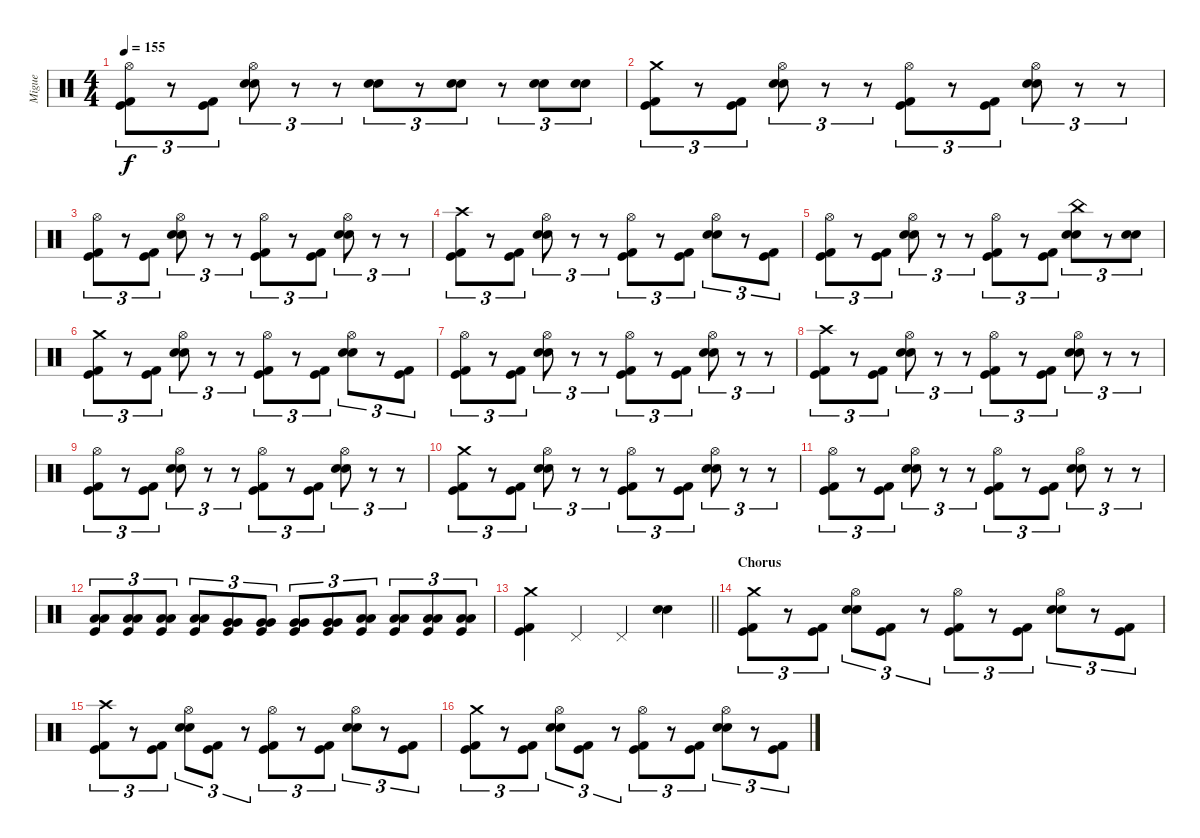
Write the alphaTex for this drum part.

\track ("Migue" "Migue") {instrument percussion}
\staff {score}
\articulation defaults
\ts (4 4)
\tempo 155
\clef neutral
\ks c
("Hi-Hat (open)" "Kick (hit) 2" "Kick (hit)").8{tu (3 2) dy f} r.8{tu (3 2)} ("Kick (hit) 2" "Kick (hit)").8{tu (3 2)} ("Hi-Hat (open)" "Snare (hit) 2" "Snare (hit) 2").8{tu (3 2)} r.8{tu (3 2)} r.8{tu (3 2)} ("Snare (hit) 2" "Snare (hit) 2").8{tu (3 2)} r.8{tu (3 2)} ("Snare (hit) 2" "Snare (hit) 2").8{tu (3 2)} r.8{tu (3 2)} ("Snare (hit) 2" "Snare (hit) 2").8{tu (3 2)} ("Snare (hit) 2" "Snare (hit) 2").8{tu (3 2)} |
("Crash medium (hit)" "Kick (hit) 2" "Kick (hit)").8{tu (3 2)} r.8{tu (3 2)} ("Kick (hit) 2" "Kick (hit)").8{tu (3 2)} ("Hi-Hat (open)" "Snare (hit) 2" "Snare (hit) 2").8{tu (3 2)} r.8{tu (3 2)} r.8{tu (3 2)} ("Hi-Hat (open)" "Kick (hit) 2" "Kick (hit)").8{tu (3 2)} r.8{tu (3 2)} ("Kick (hit) 2" "Kick (hit)").8{tu (3 2)} ("Hi-Hat (open)" "Snare (hit) 2" "Snare (hit) 2").8{tu (3 2)} r.8{tu (3 2)} r.8{tu (3 2)} |
("Hi-Hat (open)" "Kick (hit) 2" "Kick (hit)").8{tu (3 2)} r.8{tu (3 2)} ("Kick (hit) 2" "Kick (hit)").8{tu (3 2)} ("Hi-Hat (open)" "Snare (hit) 2" "Snare (hit) 2").8{tu (3 2)} r.8{tu (3 2)} r.8{tu (3 2)} ("Hi-Hat (open)" "Kick (hit) 2" "Kick (hit)").8{tu (3 2)} r.8{tu (3 2)} ("Kick (hit) 2" "Kick (hit)").8{tu (3 2)} ("Hi-Hat (open)" "Snare (hit) 2" "Snare (hit) 2").8{tu (3 2)} r.8{tu (3 2)} r.8{tu (3 2)} |
("Crash high (hit)" "Kick (hit) 2" "Kick (hit)").8{tu (3 2)} r.8{tu (3 2)} ("Kick (hit) 2" "Kick (hit)").8{tu (3 2)} ("Hi-Hat (open)" "Snare (hit) 2" "Snare (hit) 2").8{tu (3 2)} r.8{tu (3 2)} r.8{tu (3 2)} ("Hi-Hat (open)" "Kick (hit) 2" "Kick (hit)").8{tu (3 2)} r.8{tu (3 2)} ("Kick (hit) 2" "Kick (hit)").8{tu (3 2)} ("Hi-Hat (open)" "Snare (hit) 2" "Snare (hit) 2").8{tu (3 2)} r.8{tu (3 2)} ("Kick (hit) 2" "Kick (hit)").8{tu (3 2)} |
("Hi-Hat (open)" "Kick (hit) 2" "Kick (hit)").8{tu (3 2)} r.8{tu (3 2)} ("Kick (hit) 2" "Kick (hit)").8{tu (3 2)} ("Hi-Hat (open)" "Snare (hit) 2" "Snare (hit) 2").8{tu (3 2)} r.8{tu (3 2)} r.8{tu (3 2)} ("Hi-Hat (open)" "Kick (hit) 2" "Kick (hit)").8{tu (3 2)} r.8{tu (3 2)} ("Kick (hit) 2" "Kick (hit)").8{tu (3 2)} ("China (hit)" "Snare (hit) 2" "Snare (hit) 2").8{tu (3 2)} r.8{tu (3 2)} ("Snare (hit) 2" "Snare (hit) 2").8{tu (3 2)} |
("Crash medium (hit)" "Kick (hit) 2" "Kick (hit)").8{tu (3 2)} r.8{tu (3 2)} ("Kick (hit) 2" "Kick (hit)").8{tu (3 2)} ("Hi-Hat (open)" "Snare (hit) 2" "Snare (hit) 2").8{tu (3 2)} r.8{tu (3 2)} r.8{tu (3 2)} ("Hi-Hat (open)" "Kick (hit) 2" "Kick (hit)").8{tu (3 2)} r.8{tu (3 2)} ("Kick (hit) 2" "Kick (hit)").8{tu (3 2)} ("Hi-Hat (open)" "Snare (hit) 2" "Snare (hit) 2").8{tu (3 2)} r.8{tu (3 2)} ("Kick (hit) 2" "Kick (hit)").8{tu (3 2)} |
("Hi-Hat (open)" "Kick (hit) 2" "Kick (hit)").8{tu (3 2)} r.8{tu (3 2)} ("Kick (hit) 2" "Kick (hit)").8{tu (3 2)} ("Hi-Hat (open)" "Snare (hit) 2" "Snare (hit) 2").8{tu (3 2)} r.8{tu (3 2)} r.8{tu (3 2)} ("Hi-Hat (open)" "Kick (hit) 2" "Kick (hit)").8{tu (3 2)} r.8{tu (3 2)} ("Kick (hit) 2" "Kick (hit)").8{tu (3 2)} ("Hi-Hat (open)" "Snare (hit) 2" "Snare (hit) 2").8{tu (3 2)} r.8{tu (3 2)} r.8{tu (3 2)} |
("Crash high (hit)" "Kick (hit) 2" "Kick (hit)").8{tu (3 2)} r.8{tu (3 2)} ("Kick (hit) 2" "Kick (hit)").8{tu (3 2)} ("Hi-Hat (open)" "Snare (hit) 2" "Snare (hit) 2").8{tu (3 2)} r.8{tu (3 2)} r.8{tu (3 2)} ("Hi-Hat (open)" "Kick (hit) 2" "Kick (hit)").8{tu (3 2)} r.8{tu (3 2)} ("Kick (hit) 2" "Kick (hit)").8{tu (3 2)} ("Hi-Hat (open)" "Snare (hit) 2" "Snare (hit) 2").8{tu (3 2)} r.8{tu (3 2)} r.8{tu (3 2)} |
("Hi-Hat (open)" "Kick (hit) 2" "Kick (hit)").8{tu (3 2)} r.8{tu (3 2)} ("Kick (hit) 2" "Kick (hit)").8{tu (3 2)} ("Hi-Hat (open)" "Snare (hit) 2" "Snare (hit) 2").8{tu (3 2)} r.8{tu (3 2)} r.8{tu (3 2)} ("Hi-Hat (open)" "Kick (hit) 2" "Kick (hit)").8{tu (3 2)} r.8{tu (3 2)} ("Kick (hit) 2" "Kick (hit)").8{tu (3 2)} ("Hi-Hat (open)" "Snare (hit) 2" "Snare (hit) 2").8{tu (3 2)} r.8{tu (3 2)} r.8{tu (3 2)} |
("Crash medium (hit)" "Kick (hit) 2" "Kick (hit)").8{tu (3 2)} r.8{tu (3 2)} ("Kick (hit) 2" "Kick (hit)").8{tu (3 2)} ("Hi-Hat (open)" "Snare (hit) 2" "Snare (hit) 2").8{tu (3 2)} r.8{tu (3 2)} r.8{tu (3 2)} ("Hi-Hat (open)" "Kick (hit) 2" "Kick (hit)").8{tu (3 2)} r.8{tu (3 2)} ("Kick (hit) 2" "Kick (hit)").8{tu (3 2)} ("Hi-Hat (open)" "Snare (hit) 2" "Snare (hit) 2").8{tu (3 2)} r.8{tu (3 2)} r.8{tu (3 2)} |
("Hi-Hat (open)" "Kick (hit) 2" "Kick (hit)").8{tu (3 2)} r.8{tu (3 2)} ("Kick (hit) 2" "Kick (hit)").8{tu (3 2)} ("Hi-Hat (open)" "Snare (hit) 2" "Snare (hit) 2").8{tu (3 2)} r.8{tu (3 2)} r.8{tu (3 2)} ("Hi-Hat (open)" "Kick (hit) 2" "Kick (hit)").8{tu (3 2)} r.8{tu (3 2)} ("Kick (hit) 2" "Kick (hit)").8{tu (3 2)} ("Hi-Hat (open)" "Snare (hit) 2" "Snare (hit) 2").8{tu (3 2)} r.8{tu (3 2)} r.8{tu (3 2)} |
("Low Tom (hit)" "Low Tom (hit)" "Kick (hit)").8{tu (3 2)} ("Low Tom (hit)" "Low Tom (hit)" "Kick (hit)").8{tu (3 2)} ("Low Tom (hit)" "Low Tom (hit)" "Kick (hit)").8{tu (3 2)} ("Low Tom (hit)" "Low Tom (hit)" "Kick (hit)").8{tu (3 2)} ("Very Low Tom (hit)" "Very Low Tom (hit)" "Kick (hit)").8{tu (3 2)} ("Very Low Tom (hit)" "Very Low Tom (hit)" "Kick (hit)").8{tu (3 2)} ("Very Low Tom (hit)" "Very Low Tom (hit)" "Kick (hit)").8{tu (3 2)} ("Very Low Tom (hit)" "Very Low Tom (hit)" "Kick (hit)").8{tu (3 2)} ("Low Floor Tom (hit)" "Low Floor Tom (hit)" "Kick (hit)").8{tu (3 2)} ("Low Floor Tom (hit)" "Low Floor Tom (hit)" "Kick (hit)").8{tu (3 2)} ("Low Floor Tom (hit)" "Low Floor Tom (hit)" "Kick (hit)").8{tu (3 2)} ("Low Floor Tom (hit)" "Low Floor Tom (hit)" "Kick (hit)").8{tu (3 2)} |
\barLineRight lightlight
("Crash medium (hit)" "Kick (hit) 2" "Kick (hit)").4 "Pedal Hi-Hat (hit)".4 "Pedal Hi-Hat (hit)".4 ("Snare (hit) 2" "Snare (hit) 2").4 |
\section ("" "Chorus")
("Crash medium (hit)" "Kick (hit) 2" "Kick (hit)").8{tu (3 2)} r.8{tu (3 2)} ("Kick (hit) 2" "Kick (hit)").8{tu (3 2)} ("Hi-Hat (open)" "Snare (hit) 2" "Snare (hit) 2").8{tu (3 2)} ("Kick (hit)" "Kick (hit) 2").8{tu (3 2)} r.8{tu (3 2)} ("Hi-Hat (open)" "Kick (hit) 2" "Kick (hit)").8{tu (3 2)} r.8{tu (3 2)} ("Kick (hit) 2" "Kick (hit)").8{tu (3 2)} ("Hi-Hat (open)" "Snare (hit) 2" "Snare (hit) 2").8{tu (3 2)} r.8{tu (3 2)} ("Kick (hit) 2" "Kick (hit)").8{tu (3 2)} |
("Crash high (hit)" "Kick (hit) 2" "Kick (hit)").8{tu (3 2)} r.8{tu (3 2)} ("Kick (hit) 2" "Kick (hit)").8{tu (3 2)} ("Hi-Hat (open)" "Snare (hit) 2" "Snare (hit) 2").8{tu (3 2)} ("Kick (hit) 2" "Kick (hit)").8{tu (3 2)} r.8{tu (3 2)} ("Hi-Hat (open)" "Kick (hit) 2" "Kick (hit)").8{tu (3 2)} r.8{tu (3 2)} ("Kick (hit) 2" "Kick (hit)").8{tu (3 2)} ("Hi-Hat (open)" "Snare (hit) 2" "Snare (hit) 2").8{tu (3 2)} r.8{tu (3 2)} ("Kick (hit) 2" "Kick (hit)").8{tu (3 2)} |
("Crash medium (hit)" "Kick (hit) 2" "Kick (hit)").8{tu (3 2)} r.8{tu (3 2)} ("Kick (hit) 2" "Kick (hit)").8{tu (3 2)} ("Hi-Hat (open)" "Snare (hit) 2" "Snare (hit) 2").8{tu (3 2)} ("Kick (hit) 2" "Kick (hit)").8{tu (3 2)} r.8{tu (3 2)} ("Hi-Hat (open)" "Kick (hit) 2" "Kick (hit)").8{tu (3 2)} r.8{tu (3 2)} ("Kick (hit) 2" "Kick (hit)").8{tu (3 2)} ("Hi-Hat (open)" "Snare (hit) 2" "Snare (hit) 2").8{tu (3 2)} r.8{tu (3 2)} ("Kick (hit) 2" "Kick (hit)").8{tu (3 2)}
